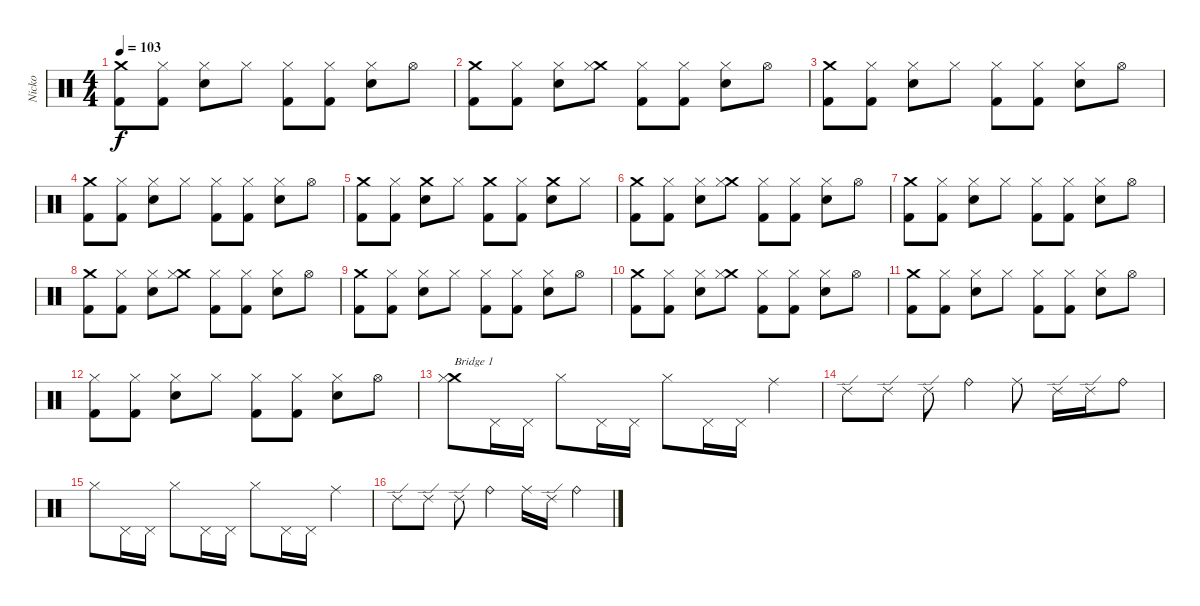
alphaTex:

\track ("Nicko" "Nicko") {instrument percussion}
\staff {score}
\articulation defaults
\ts (4 4)
\tempo 103
\clef neutral
\ks c
("Crash medium (hit)" "Kick (hit) 2").8{dy f} ("Hi-Hat (closed)" "Kick (hit) 2").8 ("Hi-Hat (closed)" "Snare (hit) 2").8 "Hi-Hat (closed)".8 ("Hi-Hat (closed)" "Kick (hit) 2").8 ("Hi-Hat (closed)" "Kick (hit) 2").8 ("Hi-Hat (closed)" "Snare (hit) 2").8 "Hi-Hat (open)".8 |
("Crash medium (hit)" "Kick (hit) 2").8 ("Hi-Hat (closed)" "Kick (hit) 2").8 ("Hi-Hat (closed)" "Snare (hit) 2").8 ("Crash medium (hit)" "Hi-Hat (closed)").8 ("Hi-Hat (closed)" "Kick (hit) 2").8 ("Hi-Hat (closed)" "Kick (hit) 2").8 ("Hi-Hat (closed)" "Snare (hit) 2").8 "Hi-Hat (open)".8 |
("Crash medium (hit)" "Kick (hit) 2").8 ("Hi-Hat (closed)" "Kick (hit) 2").8 ("Hi-Hat (closed)" "Snare (hit) 2").8 "Hi-Hat (closed)".8 ("Hi-Hat (closed)" "Kick (hit) 2").8 ("Hi-Hat (closed)" "Kick (hit) 2").8 ("Hi-Hat (closed)" "Snare (hit) 2").8 "Hi-Hat (open)".8 |
("Crash medium (hit)" "Kick (hit) 2").8 ("Hi-Hat (closed)" "Kick (hit) 2").8 ("Hi-Hat (closed)" "Snare (hit) 2").8 "Hi-Hat (closed)".8 ("Hi-Hat (closed)" "Kick (hit) 2").8 ("Hi-Hat (closed)" "Kick (hit) 2").8 ("Hi-Hat (closed)" "Snare (hit) 2").8 "Hi-Hat (open)".8 |
("Crash medium (hit)" "Kick (hit) 2").8 ("Hi-Hat (closed)" "Kick (hit) 2").8 ("Crash medium (hit)" "Snare (hit) 2").8 "Hi-Hat (closed)".8 ("Crash medium (hit)" "Kick (hit) 2").8 ("Hi-Hat (closed)" "Kick (hit) 2").8 ("Crash medium (hit)" "Snare (hit) 2").8 "Hi-Hat (closed)".8 |
("Crash medium (hit)" "Kick (hit) 2").8 ("Hi-Hat (closed)" "Kick (hit) 2").8 ("Hi-Hat (closed)" "Snare (hit) 2").8 ("Crash medium (hit)" "Hi-Hat (closed)").8 ("Hi-Hat (closed)" "Kick (hit) 2").8 ("Hi-Hat (closed)" "Kick (hit) 2").8 ("Hi-Hat (closed)" "Snare (hit) 2").8 "Hi-Hat (open)".8 |
("Crash medium (hit)" "Kick (hit) 2").8 ("Hi-Hat (closed)" "Kick (hit) 2").8 ("Hi-Hat (closed)" "Snare (hit) 2").8 "Hi-Hat (closed)".8 ("Hi-Hat (closed)" "Kick (hit) 2").8 ("Hi-Hat (closed)" "Kick (hit) 2").8 ("Hi-Hat (closed)" "Snare (hit) 2").8 "Hi-Hat (open)".8 |
("Crash medium (hit)" "Kick (hit) 2").8 ("Hi-Hat (closed)" "Kick (hit) 2").8 ("Hi-Hat (closed)" "Snare (hit) 2").8 ("Crash medium (hit)" "Hi-Hat (closed)").8 ("Hi-Hat (closed)" "Kick (hit) 2").8 ("Hi-Hat (closed)" "Kick (hit) 2").8 ("Hi-Hat (closed)" "Snare (hit) 2").8 "Hi-Hat (open)".8 |
("Crash medium (hit)" "Kick (hit) 2").8 ("Hi-Hat (closed)" "Kick (hit) 2").8 ("Hi-Hat (closed)" "Snare (hit) 2").8 "Hi-Hat (closed)".8 ("Hi-Hat (closed)" "Kick (hit) 2").8 ("Hi-Hat (closed)" "Kick (hit) 2").8 ("Hi-Hat (closed)" "Snare (hit) 2").8 "Hi-Hat (open)".8 |
("Crash medium (hit)" "Kick (hit) 2").8 ("Hi-Hat (closed)" "Kick (hit) 2").8 ("Hi-Hat (closed)" "Snare (hit) 2").8 ("Crash medium (hit)" "Hi-Hat (closed)").8 ("Hi-Hat (closed)" "Kick (hit) 2").8 ("Hi-Hat (closed)" "Kick (hit) 2").8 ("Hi-Hat (closed)" "Snare (hit) 2").8 "Hi-Hat (open)".8 |
("Crash medium (hit)" "Kick (hit) 2").8 ("Hi-Hat (closed)" "Kick (hit) 2").8 ("Hi-Hat (closed)" "Snare (hit) 2").8 "Hi-Hat (closed)".8 ("Hi-Hat (closed)" "Kick (hit) 2").8 ("Hi-Hat (closed)" "Kick (hit) 2").8 ("Hi-Hat (closed)" "Snare (hit) 2").8 "Hi-Hat (open)".8 |
("Hi-Hat (closed)" "Kick (hit) 2").8 ("Hi-Hat (closed)" "Kick (hit) 2").8 ("Hi-Hat (closed)" "Snare (hit) 2").8 "Hi-Hat (closed)".8 ("Hi-Hat (closed)" "Kick (hit) 2").8 ("Hi-Hat (closed)" "Kick (hit) 2").8 ("Hi-Hat (closed)" "Snare (hit) 2").8 "Hi-Hat (open)".8 |
("Crash medium (hit)" "Hi-Hat (closed)").8{txt "Bridge 1"} "Pedal Hi-Hat (hit)".16 "Pedal Hi-Hat (hit)".16 "Hi-Hat (closed)".8 "Pedal Hi-Hat (hit)".16 "Pedal Hi-Hat (hit)".16 "Hi-Hat (closed)".8 "Pedal Hi-Hat (hit)".16 "Pedal Hi-Hat (hit)".16 "Ride (middle)".4 |
"Ride (edge) 2".8 "Ride (edge) 2".8 "Ride (edge) 2".8 "Ride (bell)".4 "Ride (middle)".8 "Ride (edge) 2".16 "Ride (edge) 2".16 "Ride (bell)".8 |
"Hi-Hat (closed)".8 "Pedal Hi-Hat (hit)".16 "Pedal Hi-Hat (hit)".16 "Hi-Hat (closed)".8 "Pedal Hi-Hat (hit)".16 "Pedal Hi-Hat (hit)".16 "Hi-Hat (closed)".8 "Pedal Hi-Hat (hit)".16 "Pedal Hi-Hat (hit)".16 "Ride (middle)".4 |
"Ride (edge) 2".8 "Ride (edge) 2".8 "Ride (edge) 2".8 "Ride (bell)".4 "Ride (middle)".16 "Ride (edge) 2".16 "Ride (bell)".4
